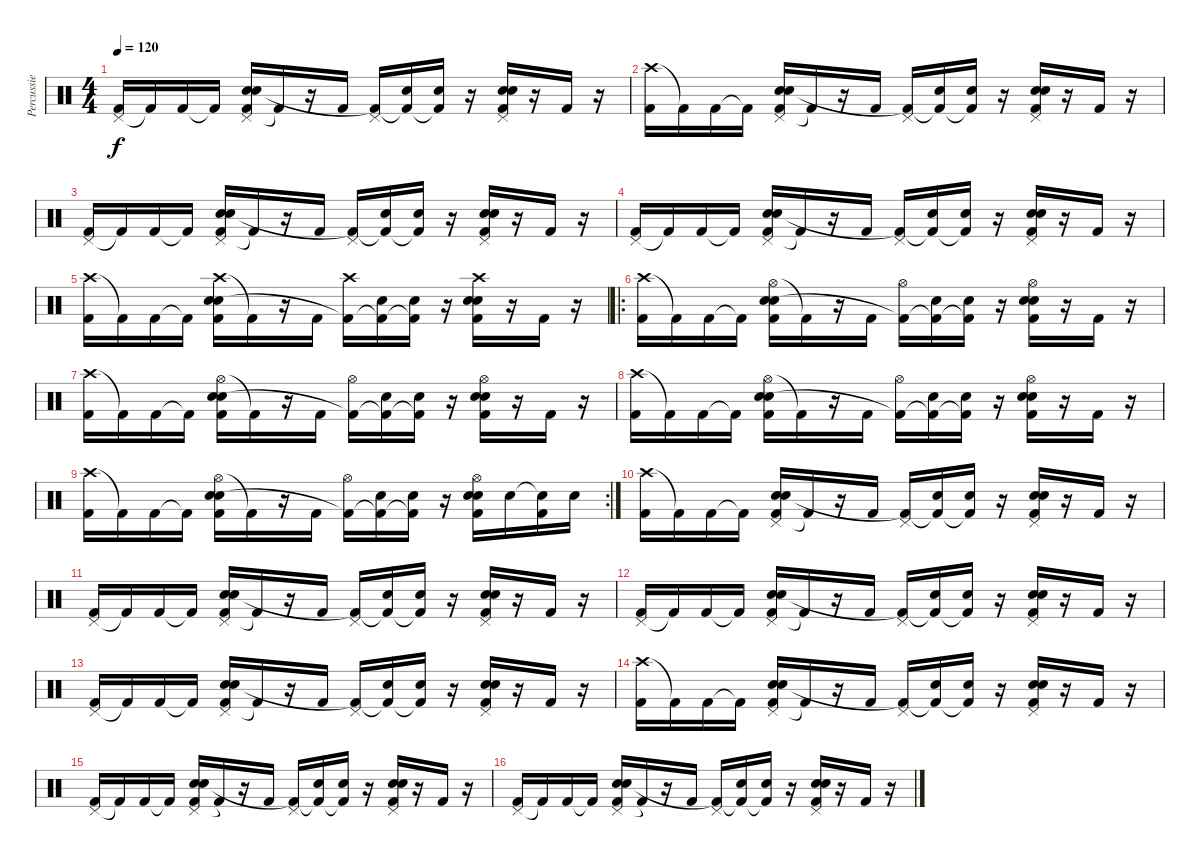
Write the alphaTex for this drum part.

\track ("Percussie" "Percussie") {instrument percussion}
\staff {score}
\articulation defaults
\ts (4 4)
\tempo 120
\clef neutral
\ks c
("Pedal Hi-Hat (hit)" "Kick (hit) 2").16{dy f} "Kick (hit) 2"{t}.16 "Kick (hit) 2".16 "Kick (hit) 2"{t}.16 ("Pedal Hi-Hat (hit)" "Electric Snare (hit)" "Snare (hit) 2" "Kick (hit) 2").16 "Kick (hit) 2"{t}.16 r.16 "Kick (hit) 2".16 ("Pedal Hi-Hat (hit)" "Kick (hit) 2"{t}).16 ("Snare (hit) 2" "Kick (hit) 2"{t}).16 ("Snare (hit) 2" "Kick (hit) 2"{t}).16 r.16 ("Pedal Hi-Hat (hit)" "Electric Snare (hit)" "Snare (hit) 2" "Kick (hit) 2").16 r.16 "Kick (hit) 2".16 r.16 |
("Crash high (hit)" "Kick (hit) 2").16 "Kick (hit) 2"{t}.16 "Kick (hit) 2".16 "Kick (hit) 2"{t}.16 ("Pedal Hi-Hat (hit)" "Electric Snare (hit)" "Snare (hit) 2" "Kick (hit) 2").16 "Kick (hit) 2"{t}.16 r.16 "Kick (hit) 2".16 ("Pedal Hi-Hat (hit)" "Kick (hit) 2"{t}).16 ("Snare (hit) 2" "Kick (hit) 2"{t}).16 ("Snare (hit) 2" "Kick (hit) 2"{t}).16 r.16 ("Pedal Hi-Hat (hit)" "Electric Snare (hit)" "Snare (hit) 2" "Kick (hit) 2").16 r.16 "Kick (hit) 2".16 r.16 |
("Pedal Hi-Hat (hit)" "Kick (hit) 2").16 "Kick (hit) 2"{t}.16 "Kick (hit) 2".16 "Kick (hit) 2"{t}.16 ("Pedal Hi-Hat (hit)" "Electric Snare (hit)" "Snare (hit) 2" "Kick (hit) 2").16 "Kick (hit) 2"{t}.16 r.16 "Kick (hit) 2".16 ("Pedal Hi-Hat (hit)" "Kick (hit) 2"{t}).16 ("Snare (hit) 2" "Kick (hit) 2"{t}).16 ("Snare (hit) 2" "Kick (hit) 2"{t}).16 r.16 ("Pedal Hi-Hat (hit)" "Electric Snare (hit)" "Snare (hit) 2" "Kick (hit) 2").16 r.16 "Kick (hit) 2".16 r.16 |
("Pedal Hi-Hat (hit)" "Kick (hit) 2").16 "Kick (hit) 2"{t}.16 "Kick (hit) 2".16 "Kick (hit) 2"{t}.16 ("Pedal Hi-Hat (hit)" "Electric Snare (hit)" "Snare (hit) 2" "Kick (hit) 2").16 "Kick (hit) 2"{t}.16 r.16 "Kick (hit) 2".16 ("Pedal Hi-Hat (hit)" "Kick (hit) 2"{t}).16 ("Snare (hit) 2" "Kick (hit) 2"{t}).16 ("Snare (hit) 2" "Kick (hit) 2"{t}).16 r.16 ("Pedal Hi-Hat (hit)" "Electric Snare (hit)" "Snare (hit) 2" "Kick (hit) 2").16 r.16 "Kick (hit) 2".16 r.16 |
("Crash high (hit)" "Kick (hit) 2").16 "Kick (hit) 2"{t}.16 "Kick (hit) 2".16 "Kick (hit) 2"{t}.16 ("Crash high (hit)" "Electric Snare (hit)" "Snare (hit) 2" "Kick (hit) 2").16 "Kick (hit) 2"{t}.16 r.16 "Kick (hit) 2".16 ("Crash high (hit)" "Kick (hit) 2"{t}).16 ("Snare (hit) 2" "Kick (hit) 2"{t}).16 ("Snare (hit) 2" "Kick (hit) 2"{t}).16 r.16 ("Crash high (hit)" "Electric Snare (hit)" "Snare (hit) 2" "Kick (hit) 2").16 r.16 "Kick (hit) 2".16 r.16 |
\ro
("Crash high (hit)" "Kick (hit) 2").16 "Kick (hit) 2"{t}.16 "Kick (hit) 2".16 "Kick (hit) 2"{t}.16 ("Hi-Hat (open)" "Electric Snare (hit)" "Snare (hit) 2" "Kick (hit) 2").16 "Kick (hit) 2"{t}.16 r.16 "Kick (hit) 2".16 ("Hi-Hat (open)" "Kick (hit) 2"{t}).16 ("Snare (hit) 2" "Kick (hit) 2"{t}).16 ("Snare (hit) 2" "Kick (hit) 2"{t}).16 r.16 ("Hi-Hat (open)" "Electric Snare (hit)" "Snare (hit) 2" "Kick (hit) 2").16 r.16 "Kick (hit) 2".16 r.16 |
("Crash high (hit)" "Kick (hit) 2").16 "Kick (hit) 2"{t}.16 "Kick (hit) 2".16 "Kick (hit) 2"{t}.16 ("Hi-Hat (open)" "Electric Snare (hit)" "Snare (hit) 2" "Kick (hit) 2").16 "Kick (hit) 2"{t}.16 r.16 "Kick (hit) 2".16 ("Hi-Hat (open)" "Kick (hit) 2"{t}).16 ("Snare (hit) 2" "Kick (hit) 2"{t}).16 ("Snare (hit) 2" "Kick (hit) 2"{t}).16 r.16 ("Hi-Hat (open)" "Electric Snare (hit)" "Snare (hit) 2" "Kick (hit) 2").16 r.16 "Kick (hit) 2".16 r.16 |
("Crash high (hit)" "Kick (hit) 2").16 "Kick (hit) 2"{t}.16 "Kick (hit) 2".16 "Kick (hit) 2"{t}.16 ("Hi-Hat (open)" "Electric Snare (hit)" "Snare (hit) 2" "Kick (hit) 2").16 "Kick (hit) 2"{t}.16 r.16 "Kick (hit) 2".16 ("Hi-Hat (open)" "Kick (hit) 2"{t}).16 ("Snare (hit) 2" "Kick (hit) 2"{t}).16 ("Snare (hit) 2" "Kick (hit) 2"{t}).16 r.16 ("Hi-Hat (open)" "Electric Snare (hit)" "Snare (hit) 2" "Kick (hit) 2").16 r.16 "Kick (hit) 2".16 r.16 |
\rc 2
("Crash high (hit)" "Kick (hit) 2").16 "Kick (hit) 2"{t}.16 "Kick (hit) 2".16 "Kick (hit) 2"{t}.16 ("Hi-Hat (open)" "Electric Snare (hit)" "Snare (hit) 2" "Kick (hit) 2").16 "Kick (hit) 2"{t}.16 r.16 "Kick (hit) 2".16 ("Hi-Hat (open)" "Kick (hit) 2"{t}).16 ("Snare (hit) 2" "Kick (hit) 2"{t}).16 ("Snare (hit) 2" "Kick (hit) 2"{t}).16 r.16 ("Hi-Hat (open)" "Electric Snare (hit)" "Snare (hit) 2" "Kick (hit) 2").16 "Snare (hit) 2".16 ("Snare (hit) 2"{t} "Kick (hit) 2").16 "Snare (hit) 2".16 |
("Crash high (hit)" "Kick (hit) 2").16 "Kick (hit) 2"{t}.16 "Kick (hit) 2".16 "Kick (hit) 2"{t}.16 ("Pedal Hi-Hat (hit)" "Electric Snare (hit)" "Snare (hit) 2" "Kick (hit) 2").16 "Kick (hit) 2"{t}.16 r.16 "Kick (hit) 2".16 ("Pedal Hi-Hat (hit)" "Kick (hit) 2"{t}).16 ("Snare (hit) 2" "Kick (hit) 2"{t}).16 ("Snare (hit) 2" "Kick (hit) 2"{t}).16 r.16 ("Pedal Hi-Hat (hit)" "Electric Snare (hit)" "Snare (hit) 2" "Kick (hit) 2").16 r.16 "Kick (hit) 2".16 r.16 |
("Pedal Hi-Hat (hit)" "Kick (hit) 2").16 "Kick (hit) 2"{t}.16 "Kick (hit) 2".16 "Kick (hit) 2"{t}.16 ("Pedal Hi-Hat (hit)" "Electric Snare (hit)" "Snare (hit) 2" "Kick (hit) 2").16 "Kick (hit) 2"{t}.16 r.16 "Kick (hit) 2".16 ("Pedal Hi-Hat (hit)" "Kick (hit) 2"{t}).16 ("Snare (hit) 2" "Kick (hit) 2"{t}).16 ("Snare (hit) 2" "Kick (hit) 2"{t}).16 r.16 ("Pedal Hi-Hat (hit)" "Electric Snare (hit)" "Snare (hit) 2" "Kick (hit) 2").16 r.16 "Kick (hit) 2".16 r.16 |
("Pedal Hi-Hat (hit)" "Kick (hit) 2").16 "Kick (hit) 2"{t}.16 "Kick (hit) 2".16 "Kick (hit) 2"{t}.16 ("Pedal Hi-Hat (hit)" "Electric Snare (hit)" "Snare (hit) 2" "Kick (hit) 2").16 "Kick (hit) 2"{t}.16 r.16 "Kick (hit) 2".16 ("Pedal Hi-Hat (hit)" "Kick (hit) 2"{t}).16 ("Snare (hit) 2" "Kick (hit) 2"{t}).16 ("Snare (hit) 2" "Kick (hit) 2"{t}).16 r.16 ("Pedal Hi-Hat (hit)" "Electric Snare (hit)" "Snare (hit) 2" "Kick (hit) 2").16 r.16 "Kick (hit) 2".16 r.16 |
("Pedal Hi-Hat (hit)" "Kick (hit) 2").16 "Kick (hit) 2"{t}.16 "Kick (hit) 2".16 "Kick (hit) 2"{t}.16 ("Pedal Hi-Hat (hit)" "Electric Snare (hit)" "Snare (hit) 2" "Kick (hit) 2").16 "Kick (hit) 2"{t}.16 r.16 "Kick (hit) 2".16 ("Pedal Hi-Hat (hit)" "Kick (hit) 2"{t}).16 ("Snare (hit) 2" "Kick (hit) 2"{t}).16 ("Snare (hit) 2" "Kick (hit) 2"{t}).16 r.16 ("Pedal Hi-Hat (hit)" "Electric Snare (hit)" "Snare (hit) 2" "Kick (hit) 2").16 r.16 "Kick (hit) 2".16 r.16 |
("Crash high (hit)" "Kick (hit) 2").16 "Kick (hit) 2"{t}.16 "Kick (hit) 2".16 "Kick (hit) 2"{t}.16 ("Pedal Hi-Hat (hit)" "Electric Snare (hit)" "Snare (hit) 2" "Kick (hit) 2").16 "Kick (hit) 2"{t}.16 r.16 "Kick (hit) 2".16 ("Pedal Hi-Hat (hit)" "Kick (hit) 2"{t}).16 ("Snare (hit) 2" "Kick (hit) 2"{t}).16 ("Snare (hit) 2" "Kick (hit) 2"{t}).16 r.16 ("Pedal Hi-Hat (hit)" "Electric Snare (hit)" "Snare (hit) 2" "Kick (hit) 2").16 r.16 "Kick (hit) 2".16 r.16 |
("Pedal Hi-Hat (hit)" "Kick (hit) 2").16 "Kick (hit) 2"{t}.16 "Kick (hit) 2".16 "Kick (hit) 2"{t}.16 ("Pedal Hi-Hat (hit)" "Electric Snare (hit)" "Snare (hit) 2" "Kick (hit) 2").16 "Kick (hit) 2"{t}.16 r.16 "Kick (hit) 2".16 ("Pedal Hi-Hat (hit)" "Kick (hit) 2"{t}).16 ("Snare (hit) 2" "Kick (hit) 2"{t}).16 ("Snare (hit) 2" "Kick (hit) 2"{t}).16 r.16 ("Pedal Hi-Hat (hit)" "Electric Snare (hit)" "Snare (hit) 2" "Kick (hit) 2").16 r.16 "Kick (hit) 2".16 r.16 |
("Pedal Hi-Hat (hit)" "Kick (hit) 2").16 "Kick (hit) 2"{t}.16 "Kick (hit) 2".16 "Kick (hit) 2"{t}.16 ("Pedal Hi-Hat (hit)" "Electric Snare (hit)" "Snare (hit) 2" "Kick (hit) 2").16 "Kick (hit) 2"{t}.16 r.16 "Kick (hit) 2".16 ("Pedal Hi-Hat (hit)" "Kick (hit) 2"{t}).16 ("Snare (hit) 2" "Kick (hit) 2"{t}).16 ("Snare (hit) 2" "Kick (hit) 2"{t}).16 r.16 ("Pedal Hi-Hat (hit)" "Electric Snare (hit)" "Snare (hit) 2" "Kick (hit) 2").16 r.16 "Kick (hit) 2".16 r.16
